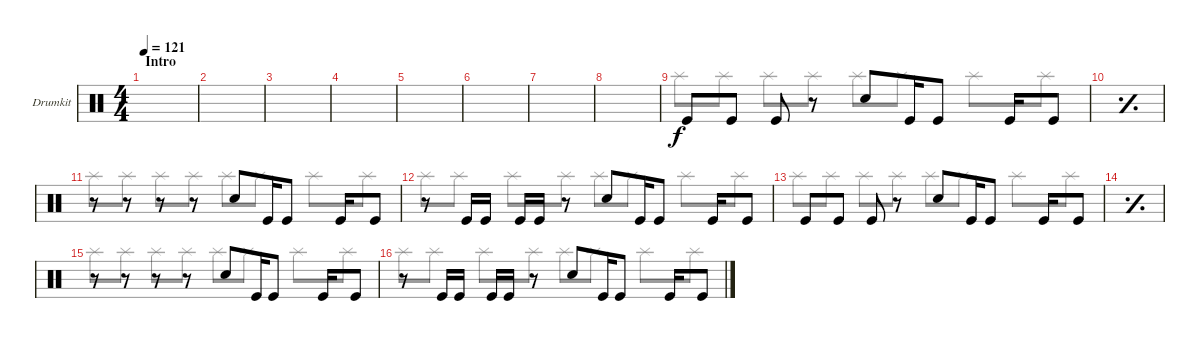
\defaultSystemsLayout 4
\bracketExtendMode groupsimilarinstruments
\firstSystemTrackNameOrientation horizontal
\otherSystemsTrackNameOrientation horizontal
\track ("Drumkit" "Drumkit") {instrument percussion}
\staff {score}
\articulation defaults
\voice
\ts (4 4)
\section ("" "Intro")
\tempo 121
\clef neutral
\ks c
|
|
|
|
|
|
|
|
"Kick (hit)".8 "Kick (hit)".8 "Kick (hit)".8 r.8 "Snare (hit) 2".8 "Kick (hit)".16 "Kick (hit)".8 "Kick (hit)".16 "Kick (hit)".8 |
\simile simple
|
\simile none
r.8 r.8 r.8 r.8 "Snare (hit) 2".8 "Kick (hit)".16 "Kick (hit)".8 "Kick (hit)".16 "Kick (hit)".8 |
r.8 "Kick (hit)".16 "Kick (hit)".16 "Kick (hit)".16 "Kick (hit)".16 r.8 "Snare (hit) 2".8 "Kick (hit)".16 "Kick (hit)".8 "Kick (hit)".16 "Kick (hit)".8 |
"Kick (hit)".8 "Kick (hit)".8 "Kick (hit)".8 r.8 "Snare (hit) 2".8 "Kick (hit)".16 "Kick (hit)".8 "Kick (hit)".16 "Kick (hit)".8 |
\simile simple
|
\simile none
r.8 r.8 r.8 r.8 "Snare (hit) 2".8 "Kick (hit)".16 "Kick (hit)".8 "Kick (hit)".16 "Kick (hit)".8 |
r.8 "Kick (hit)".16 "Kick (hit)".16 "Kick (hit)".16 "Kick (hit)".16 r.8 "Snare (hit) 2".8 "Kick (hit)".16 "Kick (hit)".8 "Kick (hit)".16 "Kick (hit)".8
\voice
\clef neutral
\ottava regular
\simile none
\ks c
|
|
|
|
|
|
|
|
"Splash (hit)".8 "Splash (hit)".8 "Splash (hit)".8 "Splash (hit)".8 "Splash (hit)".8 "Splash (hit)".8 "Splash (hit)".8 "Splash (hit)".8 |
\simile simple
|
\simile none "Splash (hit)".8 "Splash (hit)".8 "Splash (hit)".8 "Splash (hit)".8 "Splash (hit)".8 "Splash (hit)".8 "Splash (hit)".8 "Splash (hit)".8
|
"Splash (hit)".8 "Splash (hit)".8 "Splash (hit)".8 "Splash (hit)".8 "Splash (hit)".8 "Splash (hit)".8 "Splash (hit)".8 "Splash (hit)".8 |
"Splash (hit)".8 "Splash (hit)".8 "Splash (hit)".8 "Splash (hit)".8 "Splash (hit)".8 "Splash (hit)".8 "Splash (hit)".8 "Splash (hit)".8 |
\simile simple
|
\simile none "Splash (hit)".8 "Splash (hit)".8 "Splash (hit)".8 "Splash (hit)".8 "Splash (hit)".8 "Splash (hit)".8 "Splash (hit)".8 "Splash (hit)".8
|
"Splash (hit)".8 "Splash (hit)".8 "Splash (hit)".8 "Splash (hit)".8 "Splash (hit)".8 "Splash (hit)".8 "Splash (hit)".8 "Splash (hit)".8
